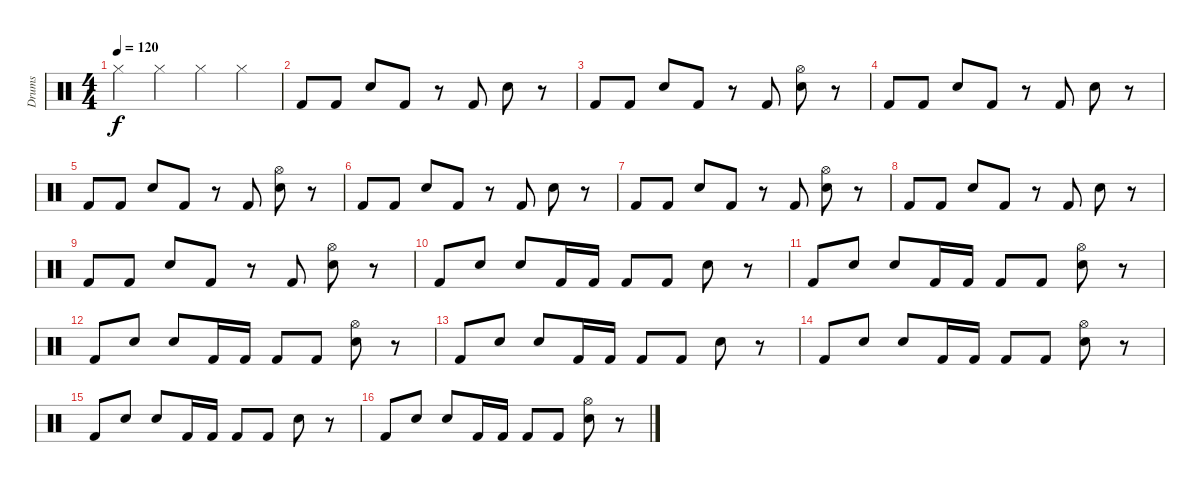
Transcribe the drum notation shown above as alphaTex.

\track ("Drums" "Drums") {instrument percussion}
\staff {score}
\articulation defaults
\ts (4 4)
\tempo 120
\clef neutral
\ks c "Hi-Hat (closed)".4{dy f} "Hi-Hat (closed)".4 "Hi-Hat (closed)".4 "Hi-Hat (closed)".4
|
"Kick (hit) 2".8 "Kick (hit) 2".8 "Snare (hit) 2".8 "Kick (hit) 2".8 r.8 "Kick (hit) 2".8 "Snare (hit) 2".8 r.8 |
"Kick (hit) 2".8 "Kick (hit) 2".8 "Snare (hit) 2".8 "Kick (hit) 2".8 r.8 "Kick (hit) 2".8 ("Snare (hit) 2" "Hi-Hat (open)").8 r.8 |
"Kick (hit) 2".8 "Kick (hit) 2".8 "Snare (hit) 2".8 "Kick (hit) 2".8 r.8 "Kick (hit) 2".8 "Snare (hit) 2".8 r.8 |
"Kick (hit) 2".8 "Kick (hit) 2".8 "Snare (hit) 2".8 "Kick (hit) 2".8 r.8 "Kick (hit) 2".8 ("Snare (hit) 2" "Hi-Hat (open)").8 r.8 |
"Kick (hit) 2".8 "Kick (hit) 2".8 "Snare (hit) 2".8 "Kick (hit) 2".8 r.8 "Kick (hit) 2".8 "Snare (hit) 2".8 r.8 |
"Kick (hit) 2".8 "Kick (hit) 2".8 "Snare (hit) 2".8 "Kick (hit) 2".8 r.8 "Kick (hit) 2".8 ("Snare (hit) 2" "Hi-Hat (open)").8 r.8 |
"Kick (hit) 2".8 "Kick (hit) 2".8 "Snare (hit) 2".8 "Kick (hit) 2".8 r.8 "Kick (hit) 2".8 "Snare (hit) 2".8 r.8 |
"Kick (hit) 2".8 "Kick (hit) 2".8 "Snare (hit) 2".8 "Kick (hit) 2".8 r.8 "Kick (hit) 2".8 ("Snare (hit) 2" "Hi-Hat (open)").8 r.8 |
"Kick (hit) 2".8 "Snare (hit) 2".8 "Snare (hit) 2".8 "Kick (hit) 2".16 "Kick (hit) 2".16 "Kick (hit) 2".8 "Kick (hit) 2".8 "Snare (hit) 2".8 r.8 |
"Kick (hit) 2".8 "Snare (hit) 2".8 "Snare (hit) 2".8 "Kick (hit) 2".16 "Kick (hit) 2".16 "Kick (hit) 2".8 "Kick (hit) 2".8 ("Snare (hit) 2" "Hi-Hat (open)").8 r.8 |
"Kick (hit) 2".8 "Snare (hit) 2".8 "Snare (hit) 2".8 "Kick (hit) 2".16 "Kick (hit) 2".16 "Kick (hit) 2".8 "Kick (hit) 2".8 ("Snare (hit) 2" "Hi-Hat (open)").8 r.8 |
"Kick (hit) 2".8 "Snare (hit) 2".8 "Snare (hit) 2".8 "Kick (hit) 2".16 "Kick (hit) 2".16 "Kick (hit) 2".8 "Kick (hit) 2".8 "Snare (hit) 2".8 r.8 |
"Kick (hit) 2".8 "Snare (hit) 2".8 "Snare (hit) 2".8 "Kick (hit) 2".16 "Kick (hit) 2".16 "Kick (hit) 2".8 "Kick (hit) 2".8 ("Snare (hit) 2" "Hi-Hat (open)").8 r.8 |
"Kick (hit) 2".8 "Snare (hit) 2".8 "Snare (hit) 2".8 "Kick (hit) 2".16 "Kick (hit) 2".16 "Kick (hit) 2".8 "Kick (hit) 2".8 "Snare (hit) 2".8 r.8 |
"Kick (hit) 2".8 "Snare (hit) 2".8 "Snare (hit) 2".8 "Kick (hit) 2".16 "Kick (hit) 2".16 "Kick (hit) 2".8 "Kick (hit) 2".8 ("Snare (hit) 2" "Hi-Hat (open)").8 r.8
